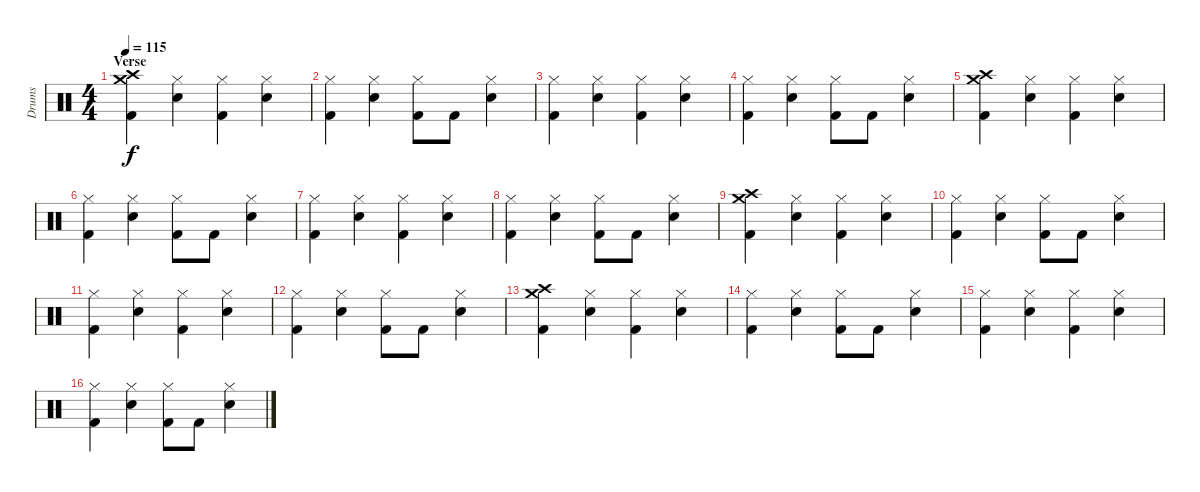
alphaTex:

\track ("Drums" "Drums") {instrument percussion}
\staff {score}
\articulation defaults
\ts (4 4)
\section ("" "Verse")
\tempo 115
\clef neutral
\ks c
("Crash medium (hit)" "Crash high (hit)" "Kick (hit) 2").4{dy f} ("Hi-Hat (closed)" "Snare (hit) 2").4 ("Hi-Hat (closed)" "Kick (hit) 2").4 ("Hi-Hat (closed)" "Snare (hit) 2").4 |
("Hi-Hat (closed)" "Kick (hit) 2").4 ("Hi-Hat (closed)" "Snare (hit) 2").4 ("Hi-Hat (closed)" "Kick (hit) 2").8 "Kick (hit) 2".8 ("Hi-Hat (closed)" "Snare (hit) 2").4 |
("Hi-Hat (closed)" "Kick (hit) 2").4 ("Hi-Hat (closed)" "Snare (hit) 2").4 ("Hi-Hat (closed)" "Kick (hit) 2").4 ("Hi-Hat (closed)" "Snare (hit) 2").4 |
("Hi-Hat (closed)" "Kick (hit) 2").4 ("Hi-Hat (closed)" "Snare (hit) 2").4 ("Hi-Hat (closed)" "Kick (hit) 2").8 "Kick (hit) 2".8 ("Hi-Hat (closed)" "Snare (hit) 2").4 |
("Crash medium (hit)" "Crash high (hit)" "Kick (hit) 2").4 ("Hi-Hat (closed)" "Snare (hit) 2").4 ("Hi-Hat (closed)" "Kick (hit) 2").4 ("Hi-Hat (closed)" "Snare (hit) 2").4 |
("Hi-Hat (closed)" "Kick (hit) 2").4 ("Hi-Hat (closed)" "Snare (hit) 2").4 ("Hi-Hat (closed)" "Kick (hit) 2").8 "Kick (hit) 2".8 ("Hi-Hat (closed)" "Snare (hit) 2").4 |
("Hi-Hat (closed)" "Kick (hit) 2").4 ("Hi-Hat (closed)" "Snare (hit) 2").4 ("Hi-Hat (closed)" "Kick (hit) 2").4 ("Hi-Hat (closed)" "Snare (hit) 2").4 |
("Hi-Hat (closed)" "Kick (hit) 2").4 ("Hi-Hat (closed)" "Snare (hit) 2").4 ("Hi-Hat (closed)" "Kick (hit) 2").8 "Kick (hit) 2".8 ("Hi-Hat (closed)" "Snare (hit) 2").4 |
("Crash medium (hit)" "Crash high (hit)" "Kick (hit) 2").4 ("Hi-Hat (closed)" "Snare (hit) 2").4 ("Hi-Hat (closed)" "Kick (hit) 2").4 ("Hi-Hat (closed)" "Snare (hit) 2").4 |
("Hi-Hat (closed)" "Kick (hit) 2").4 ("Hi-Hat (closed)" "Snare (hit) 2").4 ("Hi-Hat (closed)" "Kick (hit) 2").8 "Kick (hit) 2".8 ("Hi-Hat (closed)" "Snare (hit) 2").4 |
("Hi-Hat (closed)" "Kick (hit) 2").4 ("Hi-Hat (closed)" "Snare (hit) 2").4 ("Hi-Hat (closed)" "Kick (hit) 2").4 ("Hi-Hat (closed)" "Snare (hit) 2").4 |
("Hi-Hat (closed)" "Kick (hit) 2").4 ("Hi-Hat (closed)" "Snare (hit) 2").4 ("Hi-Hat (closed)" "Kick (hit) 2").8 "Kick (hit) 2".8 ("Hi-Hat (closed)" "Snare (hit) 2").4 |
("Crash medium (hit)" "Crash high (hit)" "Kick (hit) 2").4 ("Hi-Hat (closed)" "Snare (hit) 2").4 ("Hi-Hat (closed)" "Kick (hit) 2").4 ("Hi-Hat (closed)" "Snare (hit) 2").4 |
("Hi-Hat (closed)" "Kick (hit) 2").4 ("Hi-Hat (closed)" "Snare (hit) 2").4 ("Hi-Hat (closed)" "Kick (hit) 2").8 "Kick (hit) 2".8 ("Hi-Hat (closed)" "Snare (hit) 2").4 |
("Hi-Hat (closed)" "Kick (hit) 2").4 ("Hi-Hat (closed)" "Snare (hit) 2").4 ("Hi-Hat (closed)" "Kick (hit) 2").4 ("Hi-Hat (closed)" "Snare (hit) 2").4 |
("Hi-Hat (closed)" "Kick (hit) 2").4 ("Hi-Hat (closed)" "Snare (hit) 2").4 ("Hi-Hat (closed)" "Kick (hit) 2").8 "Kick (hit) 2".8 ("Hi-Hat (closed)" "Snare (hit) 2").4
